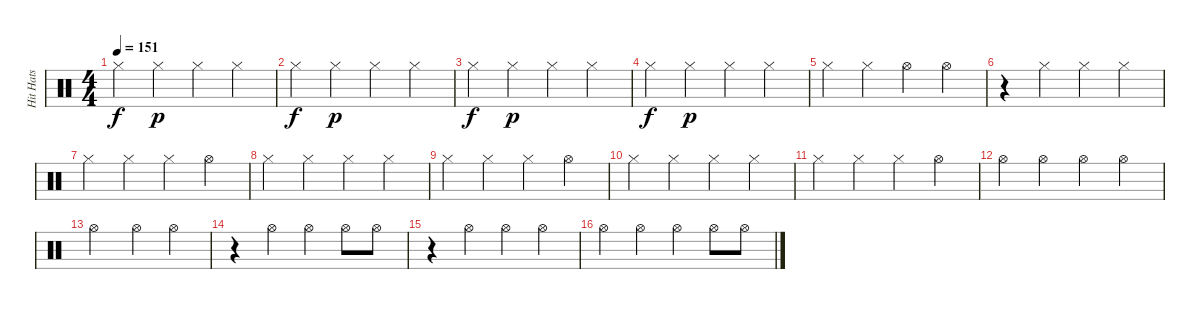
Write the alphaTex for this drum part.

\track ("Hit Hats" "Hit Hats") {instrument percussion}
\staff {score}
\articulation defaults
\ts (4 4)
\tempo 151
\clef neutral
\ks c "Hi-Hat (closed)".4{dy f} "Hi-Hat (closed)".4{dy p} "Hi-Hat (closed)".4 "Hi-Hat (closed)".4
|
"Hi-Hat (closed)".4{dy f} "Hi-Hat (closed)".4{dy p} "Hi-Hat (closed)".4 "Hi-Hat (closed)".4 |
"Hi-Hat (closed)".4{dy f} "Hi-Hat (closed)".4{dy p} "Hi-Hat (closed)".4 "Hi-Hat (closed)".4 |
"Hi-Hat (closed)".4{dy f} "Hi-Hat (closed)".4{dy p} "Hi-Hat (closed)".4 "Hi-Hat (closed)".4 |
"Hi-Hat (closed)".4 "Hi-Hat (closed)".4 "Hi-Hat (open)".4 "Hi-Hat (open)".4 |
r.4 "Hi-Hat (closed)".4 "Hi-Hat (closed)".4 "Hi-Hat (closed)".4 |
"Hi-Hat (closed)".4 "Hi-Hat (closed)".4 "Hi-Hat (closed)".4 "Hi-Hat (open)".4 |
"Hi-Hat (closed)".4 "Hi-Hat (closed)".4 "Hi-Hat (closed)".4 "Hi-Hat (closed)".4 |
"Hi-Hat (closed)".4 "Hi-Hat (closed)".4 "Hi-Hat (closed)".4 "Hi-Hat (open)".4 |
"Hi-Hat (closed)".4 "Hi-Hat (closed)".4 "Hi-Hat (closed)".4 "Hi-Hat (closed)".4 |
"Hi-Hat (closed)".4 "Hi-Hat (closed)".4 "Hi-Hat (closed)".4 "Hi-Hat (open)".4 |
"Hi-Hat (open)".4 "Hi-Hat (open)".4 "Hi-Hat (open)".4 "Hi-Hat (open)".4 |
"Hi-Hat (open)".2 "Hi-Hat (open)".4 "Hi-Hat (open)".4 |
r.4 "Hi-Hat (open)".4 "Hi-Hat (open)".4 "Hi-Hat (open)".8 "Hi-Hat (open)".8 |
r.4 "Hi-Hat (open)".4 "Hi-Hat (open)".4 "Hi-Hat (open)".4 |
"Hi-Hat (open)".4 "Hi-Hat (open)".4 "Hi-Hat (open)".4 "Hi-Hat (open)".8 "Hi-Hat (open)".8
